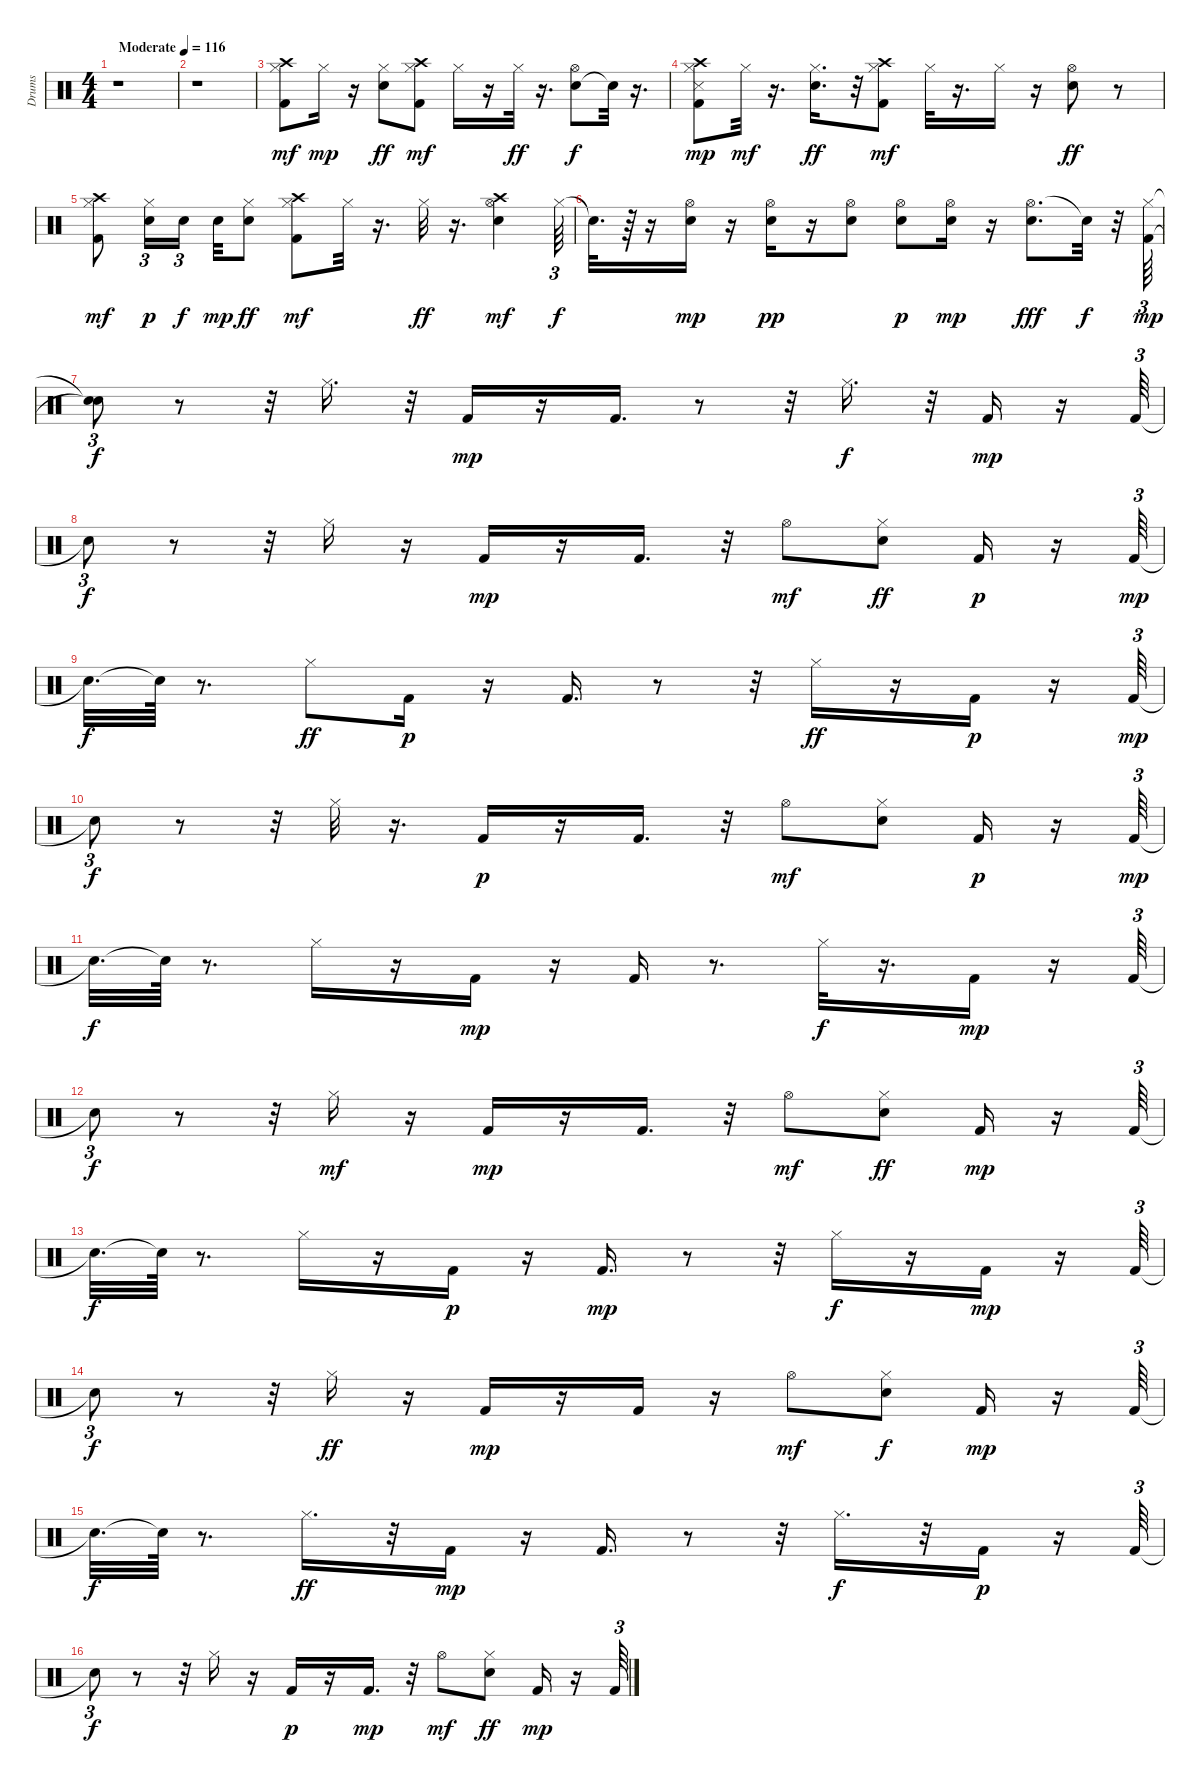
\track ("Drums" "Drums") {instrument percussion}
\staff {score}
\articulation defaults
\ts (4 4)
\tempo (116 "Moderate")
\clef neutral
\ks c
r.1{dy mf} |
r.1 |
("Crash high (hit)" "Kick (hit) 2" "Hi-Hat (closed)").8 "Hi-Hat (closed)".16{dy mp} r.16 ("Hi-Hat (closed)" "Electric Snare (hit)").8{dy ff} ("Hi-Hat (closed)" "Crash high (hit)" "Kick (hit) 2").8{dy mf} "Hi-Hat (closed)".16 r.16 "Hi-Hat (closed)".32{dy ff} r.16{d} ("Electric Snare (hit)" "Hi-Hat (open)").8{dy f} "Snare (hit)"{t}.32 r.16{d} |
("Hi-Hat (closed)" "Snare (side stick) 3" "Kick (hit) 2" "Crash high (hit)").8{dy mp} "Hi-Hat (closed)".32{dy mf} r.16{d} ("Hi-Hat (closed)" "Electric Snare (hit)").16{d dy ff} r.32 ("Crash high (hit)" "Hi-Hat (closed)" "Kick (hit) 2").8{dy mf} "Hi-Hat (closed)".32 r.16{d} "Hi-Hat (closed)".16 r.16 ("Hi-Hat (open)" "Electric Snare (hit)").8{dy ff} r.8 |
("Crash high (hit)" "Kick (hit) 2" "Hi-Hat (closed)").8{dy mf} ("Hi-Hat (closed)" "Electric Snare (hit)").16{tu (3 2) dy p} "Electric Snare (hit)".16{tu (3 2) dy f beam splitsecondary} "Electric Snare (hit)".32{dy mp} ("Hi-Hat (closed)" "Electric Snare (hit)").8{dy ff} ("Hi-Hat (closed)" "Crash high (hit)" "Kick (hit) 2").8{dy mf} "Hi-Hat (closed)".32 r.16{d} "Hi-Hat (closed)".32{dy ff} r.16{d} ("Hi-Hat (open)" "Electric Snare (hit)" "Crash high (hit)").4{dy mf} "Hi-Hat (closed)".64{tu (3 2) dy f} |
"Snare (hit)"{t}.32{d} r.64 r.16 ("Hi-Hat (open)" "Electric Snare (hit)").16{dy mp} r.16 ("Electric Snare (hit)" "Hi-Hat (open)").16{dy pp} r.16 ("Electric Snare (hit)" "Hi-Hat (open)").8 ("Hi-Hat (open)" "Electric Snare (hit)").8{dy p} ("Electric Snare (hit)" "Hi-Hat (open)").16{dy mp} r.16 ("Hi-Hat (open)" "Electric Snare (hit)").8{d dy fff} "Snare (hit)"{t}.32{dy f} r.32 ("Hi-Hat (closed)" "Kick (hit) 2").64{tu (3 2) dy mp} |
("Snare (hit)"{t} "Snare (hit)"{t}).8{tu (3 2) dy f} r.8 r.32 "Hi-Hat (closed)".16{d} r.32 "Kick (hit) 2".16{dy mp} r.16 "Kick (hit) 2".16{d} r.8 r.32 "Hi-Hat (closed)".16{d dy f} r.32 "Kick (hit) 2".16{dy mp} r.16 "Kick (hit) 2".64{tu (3 2)} |
"Snare (hit)"{t}.8{tu (3 2) dy f} r.8 r.32 "Hi-Hat (closed)".16 r.16 "Kick (hit) 2".16{dy mp} r.16 "Kick (hit) 2".16{d} r.32 "Hi-Hat (open)".8{dy mf} ("Electric Snare (hit)" "Hi-Hat (closed)").8{dy ff} "Kick (hit) 2".16{dy p} r.16 "Kick (hit) 2".64{tu (3 2) dy mp} |
"Snare (hit)"{t}.32{d dy f} "Snare (hit)"{t}.64 r.8{d} "Hi-Hat (closed)".8{dy ff} "Kick (hit) 2".16{dy p} r.16 "Kick (hit) 2".16{d} r.8 r.32 "Hi-Hat (closed)".16{dy ff} r.16 "Kick (hit) 2".16{dy p} r.16 "Kick (hit) 2".64{tu (3 2) dy mp} |
"Snare (hit)"{t}.8{tu (3 2) dy f} r.8 r.32 "Hi-Hat (closed)".32 r.16{d} "Kick (hit) 2".16{dy p} r.16 "Kick (hit) 2".16{d} r.32 "Hi-Hat (open)".8{dy mf} ("Electric Snare (hit)" "Hi-Hat (closed)").8 "Kick (hit) 2".16{dy p} r.16 "Kick (hit) 2".64{tu (3 2) dy mp} |
"Snare (hit)"{t}.32{d dy f} "Snare (hit)"{t}.64 r.8{d} "Hi-Hat (closed)".16 r.16 "Kick (hit) 2".16{dy mp} r.16 "Kick (hit) 2".16 r.8{d} "Hi-Hat (closed)".32{dy f} r.16{d} "Kick (hit) 2".16{dy mp} r.16 "Kick (hit) 2".64{tu (3 2)} |
"Snare (hit)"{t}.8{tu (3 2) dy f} r.8 r.32 "Hi-Hat (closed)".16{dy mf} r.16 "Kick (hit) 2".16{dy mp} r.16 "Kick (hit) 2".16{d} r.32 "Hi-Hat (open)".8{dy mf} ("Hi-Hat (closed)" "Electric Snare (hit)").8{dy ff} "Kick (hit) 2".16{dy mp} r.16 "Kick (hit) 2".64{tu (3 2)} |
"Snare (hit)"{t}.32{d dy f} "Snare (hit)"{t}.64 r.8{d} "Hi-Hat (closed)".16 r.16 "Kick (hit) 2".16{dy p} r.16 "Kick (hit) 2".16{d dy mp} r.8 r.32 "Hi-Hat (closed)".16{dy f} r.16 "Kick (hit) 2".16{dy mp} r.16 "Kick (hit) 2".64{tu (3 2)} |
"Snare (hit)"{t}.8{tu (3 2) dy f} r.8 r.32 "Hi-Hat (closed)".16{dy ff} r.16 "Kick (hit) 2".16{dy mp} r.16 "Kick (hit) 2".16 r.16 "Hi-Hat (open)".8{dy mf} ("Hi-Hat (closed)" "Electric Snare (hit)").8{dy f} "Kick (hit) 2".16{dy mp} r.16 "Kick (hit) 2".64{tu (3 2)} |
"Snare (hit)"{t}.32{d dy f} "Snare (hit)"{t}.64 r.8{d} "Hi-Hat (closed)".16{d dy ff} r.32 "Kick (hit) 2".16{dy mp} r.16 "Kick (hit) 2".16{d} r.8 r.32 "Hi-Hat (closed)".16{d dy f} r.32 "Kick (hit) 2".16{dy p} r.16 "Kick (hit) 2".64{tu (3 2)} |
"Snare (hit)"{t}.8{tu (3 2) dy f} r.8 r.32 "Hi-Hat (closed)".16 r.16 "Kick (hit) 2".16{dy p} r.16 "Kick (hit) 2".16{d dy mp} r.32 "Hi-Hat (open)".8{dy mf} ("Hi-Hat (closed)" "Electric Snare (hit)").8{dy ff} "Kick (hit) 2".16{dy mp} r.16 "Kick (hit) 2".64{tu (3 2)}
